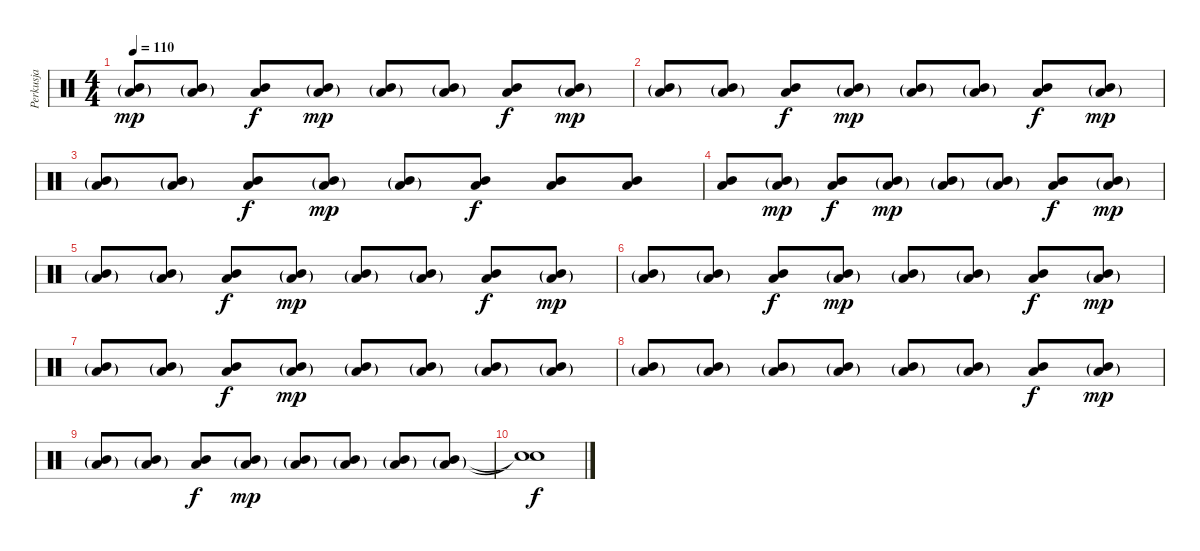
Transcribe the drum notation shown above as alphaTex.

\track ("Perkusja" "Perkusja") {instrument percussion}
\staff {score}
\articulation defaults
\ts (4 4)
\tempo 110
\clef neutral
\ks c
("Mid Tom (hit)"{g} "Low Tom (hit)"{g}).8{dy mp} ("Mid Tom (hit)"{g} "Low Tom (hit)"{g}).8 ("Mid Tom (hit)" "Low Tom (hit)").8{dy f} ("Mid Tom (hit)"{g} "Low Tom (hit)"{g}).8{dy mp} ("Mid Tom (hit)"{g} "Low Tom (hit)"{g}).8 ("Mid Tom (hit)"{g} "Low Tom (hit)"{g}).8 ("Mid Tom (hit)" "Low Tom (hit)").8{dy f} ("Mid Tom (hit)"{g} "Low Tom (hit)"{g}).8{dy mp} |
("Mid Tom (hit)"{g} "Low Tom (hit)"{g}).8 ("Mid Tom (hit)"{g} "Low Tom (hit)"{g}).8 ("Mid Tom (hit)" "Low Tom (hit)").8{dy f} ("Mid Tom (hit)"{g} "Low Tom (hit)"{g}).8{dy mp} ("Mid Tom (hit)"{g} "Low Tom (hit)"{g}).8 ("Mid Tom (hit)"{g} "Low Tom (hit)"{g}).8 ("Mid Tom (hit)" "Low Tom (hit)").8{dy f} ("Mid Tom (hit)"{g} "Low Tom (hit)"{g}).8{dy mp} |
("Mid Tom (hit)"{g} "Low Tom (hit)"{g}).8 ("Mid Tom (hit)"{g} "Low Tom (hit)"{g}).8 ("Mid Tom (hit)" "Low Tom (hit)").8{dy f} ("Mid Tom (hit)"{g} "Low Tom (hit)"{g}).8{dy mp} ("Mid Tom (hit)"{g} "Low Tom (hit)"{g}).8 ("Mid Tom (hit)" "Low Tom (hit)").8{dy f} ("Mid Tom (hit)" "Low Tom (hit)").8 ("Mid Tom (hit)" "Low Tom (hit)").8 |
("Mid Tom (hit)" "Low Tom (hit)").8 ("Mid Tom (hit)"{g} "Low Tom (hit)"{g}).8{dy mp} ("Mid Tom (hit)" "Low Tom (hit)").8{dy f} ("Mid Tom (hit)"{g} "Low Tom (hit)"{g}).8{dy mp} ("Mid Tom (hit)"{g} "Low Tom (hit)"{g}).8 ("Mid Tom (hit)"{g} "Low Tom (hit)"{g}).8 ("Mid Tom (hit)" "Low Tom (hit)").8{dy f} ("Mid Tom (hit)"{g} "Low Tom (hit)"{g}).8{dy mp} |
("Mid Tom (hit)"{g} "Low Tom (hit)"{g}).8 ("Mid Tom (hit)"{g} "Low Tom (hit)"{g}).8 ("Mid Tom (hit)" "Low Tom (hit)").8{dy f} ("Mid Tom (hit)"{g} "Low Tom (hit)"{g}).8{dy mp} ("Mid Tom (hit)"{g} "Low Tom (hit)"{g}).8 ("Mid Tom (hit)"{g} "Low Tom (hit)"{g}).8 ("Mid Tom (hit)" "Low Tom (hit)").8{dy f} ("Mid Tom (hit)"{g} "Low Tom (hit)"{g}).8{dy mp} |
("Mid Tom (hit)"{g} "Low Tom (hit)"{g}).8 ("Mid Tom (hit)"{g} "Low Tom (hit)"{g}).8 ("Mid Tom (hit)" "Low Tom (hit)").8{dy f} ("Mid Tom (hit)"{g} "Low Tom (hit)"{g}).8{dy mp} ("Mid Tom (hit)"{g} "Low Tom (hit)"{g}).8 ("Mid Tom (hit)"{g} "Low Tom (hit)"{g}).8 ("Mid Tom (hit)" "Low Tom (hit)").8{dy f} ("Mid Tom (hit)"{g} "Low Tom (hit)"{g}).8{dy mp} |
("Mid Tom (hit)"{g} "Low Tom (hit)"{g}).8 ("Mid Tom (hit)"{g} "Low Tom (hit)"{g}).8 ("Mid Tom (hit)" "Low Tom (hit)").8{dy f} ("Mid Tom (hit)"{g} "Low Tom (hit)"{g}).8{dy mp} ("Mid Tom (hit)"{g} "Low Tom (hit)"{g}).8 ("Mid Tom (hit)"{g} "Low Tom (hit)"{g}).8 ("Mid Tom (hit)"{g} "Low Tom (hit)"{g}).8 ("Mid Tom (hit)"{g} "Low Tom (hit)"{g}).8 |
("Mid Tom (hit)"{g} "Low Tom (hit)"{g}).8 ("Mid Tom (hit)"{g} "Low Tom (hit)"{g}).8 ("Mid Tom (hit)"{g} "Low Tom (hit)"{g}).8 ("Mid Tom (hit)"{g} "Low Tom (hit)"{g}).8 ("Mid Tom (hit)"{g} "Low Tom (hit)"{g}).8 ("Mid Tom (hit)"{g} "Low Tom (hit)"{g}).8 ("Mid Tom (hit)" "Low Tom (hit)").8{dy f} ("Mid Tom (hit)"{g} "Low Tom (hit)"{g}).8{dy mp} |
("Mid Tom (hit)"{g} "Low Tom (hit)"{g}).8 ("Mid Tom (hit)"{g} "Low Tom (hit)"{g}).8 ("Mid Tom (hit)" "Low Tom (hit)").8{dy f} ("Mid Tom (hit)"{g} "Low Tom (hit)"{g}).8{dy mp} ("Mid Tom (hit)"{g} "Low Tom (hit)"{g}).8 ("Mid Tom (hit)"{g} "Low Tom (hit)"{g}).8 ("Mid Tom (hit)"{g} "Low Tom (hit)"{g}).8 ("Mid Tom (hit)"{g} "Low Tom (hit)"{g}).8 |
("Snare (hit)"{t} "Snare (hit)"{t}).1{dy f}
